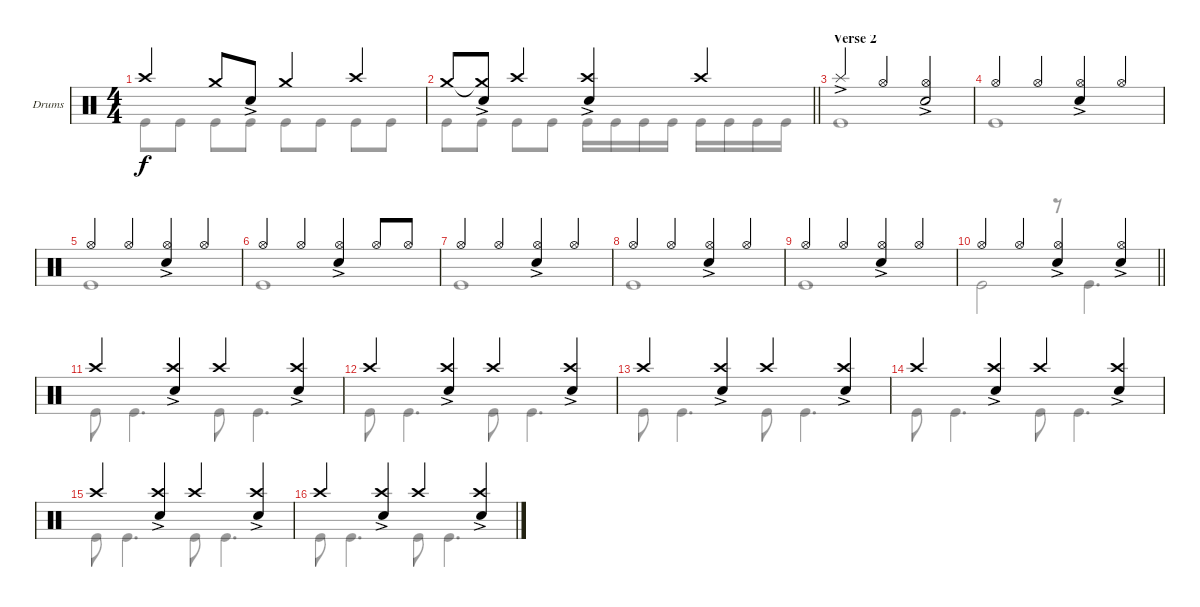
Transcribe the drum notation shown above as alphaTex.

\bracketExtendMode groupsimilarinstruments
\firstSystemTrackNameOrientation horizontal
\otherSystemsTrackNameOrientation horizontal
\track ("Drumkit" "Drums") {instrument percussion}
\staff {score}
\articulation defaults
\voice
\ts (4 4)
\tempo (184 hide)
\clef neutral
\ks c "Crash high (hit)".4{dy f} "Crash medium (hit)".8 "Snare (hit) 2"{ac}.8 "Crash medium (hit)".4 "Crash high (hit)".4
|
\tempo (184 "Moderate Rock" 1 hide)
\barLineRight lightlight "Crash medium (hit)".8
("Crash medium (hit)"{t} "Snare (hit) 2"{ac}).8 "Crash high (hit)".4 ("Crash high (hit)" "Snare (hit) 2"{ac}).4 "Crash high (hit)".4 |
\section ("" "Verse 2")
\tempo (184 "Moderate Rock" hide)
"Splash (hit)"{ac}.4 "Hi-Hat (open)".4 ("Hi-Hat (open)"{ac} "Snare (hit) 2"{ac}).2 |
"Hi-Hat (open)".4 "Hi-Hat (open)".4 ("Hi-Hat (open)" "Snare (hit) 2"{ac}).4 "Hi-Hat (open)".4 |
"Hi-Hat (open)".4 "Hi-Hat (open)".4 ("Hi-Hat (open)" "Snare (hit) 2"{ac}).4 "Hi-Hat (open)".4 |
"Hi-Hat (open)".4 "Hi-Hat (open)".4 ("Hi-Hat (open)" "Snare (hit) 2"{ac}).4 "Hi-Hat (open)".8 "Hi-Hat (open)".8 |
"Hi-Hat (open)".4 "Hi-Hat (open)".4 ("Hi-Hat (open)" "Snare (hit) 2"{ac}).4 "Hi-Hat (open)".4 |
"Hi-Hat (open)".4 "Hi-Hat (open)".4 ("Hi-Hat (open)" "Snare (hit) 2"{ac}).4 "Hi-Hat (open)".4 |
"Hi-Hat (open)".4 "Hi-Hat (open)".4 ("Hi-Hat (open)" "Snare (hit) 2"{ac}).4 "Hi-Hat (open)".4 |
\barLineRight lightlight "Hi-Hat (open)".4 "Hi-Hat (open)".4
("Hi-Hat (open)" "Snare (hit) 2"{ac}).4 ("Hi-Hat (open)" "Snare (hit) 2"{ac}).4 |
\tempo (184 "Double Time" hide)
"Crash high (hit)".4 ("Crash high (hit)" "Snare (hit) 2"{ac}).4 "Crash high (hit)".4 ("Crash high (hit)" "Snare (hit) 2"{ac}).4 |
"Crash high (hit)".4 ("Crash high (hit)" "Snare (hit) 2"{ac}).4 "Crash high (hit)".4 ("Crash high (hit)" "Snare (hit) 2"{ac}).4 |
"Crash high (hit)".4 ("Crash high (hit)" "Snare (hit) 2"{ac}).4 "Crash high (hit)".4 ("Crash high (hit)" "Snare (hit) 2"{ac}).4 |
"Crash high (hit)".4 ("Crash high (hit)" "Snare (hit) 2"{ac}).4 "Crash high (hit)".4 ("Crash high (hit)" "Snare (hit) 2"{ac}).4 |
"Crash high (hit)".4 ("Crash high (hit)" "Snare (hit) 2"{ac}).4 "Crash high (hit)".4 ("Crash high (hit)" "Snare (hit) 2"{ac}).4 |
"Crash high (hit)".4 ("Crash high (hit)" "Snare (hit) 2"{ac}).4 "Crash high (hit)".4 ("Crash high (hit)" "Snare (hit) 2"{ac}).4
\voice
\clef neutral
\ottava regular
\simile none
\ks c "Kick (hit)".8{dy f} "Kick (hit)".8 "Kick (hit)".8 "Kick (hit)".8 "Kick (hit)".8 "Kick (hit)".8 "Kick (hit)".8 "Kick (hit)".8
|
\barLineRight lightlight "Kick (hit)".8 "Kick (hit)".8 "Kick (hit)".8 "Kick (hit)".8 "Kick (hit)".16 "Kick (hit)".16 "Kick (hit)".16 "Kick (hit)".16 "Kick (hit)".16 "Kick (hit)".16 "Kick (hit)".16 "Kick (hit)".16
|
"Kick (hit)".1 |
"Kick (hit)".1 |
"Kick (hit)".1 |
"Kick (hit)".1 |
"Kick (hit)".1 |
"Kick (hit)".1 |
"Kick (hit)".1 |
\barLineRight lightlight "Kick (hit)".2
r.8 "Kick (hit)".4{d} |
"Kick (hit)".8 "Kick (hit)".4{d} "Kick (hit)".8 "Kick (hit)".4{d} |
"Kick (hit)".8 "Kick (hit)".4{d} "Kick (hit)".8 "Kick (hit)".4{d} |
"Kick (hit)".8 "Kick (hit)".4{d} "Kick (hit)".8 "Kick (hit)".4{d} |
"Kick (hit)".8 "Kick (hit)".4{d} "Kick (hit)".8 "Kick (hit)".4{d} |
"Kick (hit)".8 "Kick (hit)".4{d} "Kick (hit)".8 "Kick (hit)".4{d} |
"Kick (hit)".8 "Kick (hit)".4{d} "Kick (hit)".8 "Kick (hit)".4{d}
